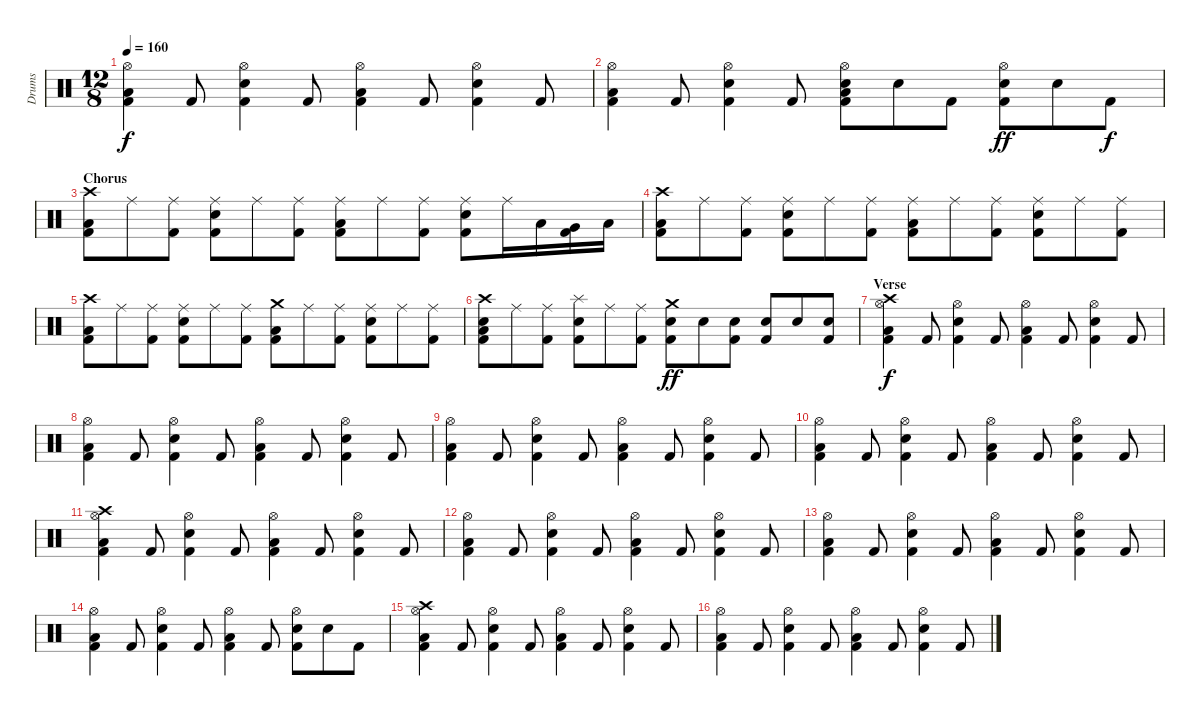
\track ("Drums" "Drums") {instrument percussion}
\staff {score}
\articulation defaults
\ts (12 8)
\tempo 160
\clef neutral
\ks c
("Hi-Hat (open)" "Low Tom (hit)" "Kick (hit) 2").4{dy f} "Kick (hit) 2".8 ("Hi-Hat (open)" "Electric Snare (hit)" "Kick (hit) 2").4 "Kick (hit) 2".8 ("Hi-Hat (open)" "Low Tom (hit)" "Kick (hit) 2").4 "Kick (hit) 2".8 ("Hi-Hat (open)" "Electric Snare (hit)" "Kick (hit) 2").4 "Kick (hit) 2".8 |
("Hi-Hat (open)" "Low Tom (hit)" "Kick (hit) 2").4 "Kick (hit) 2".8 ("Hi-Hat (open)" "Electric Snare (hit)" "Kick (hit) 2").4 "Kick (hit) 2".8 ("Hi-Hat (open)" "Electric Snare (hit)" "Low Tom (hit)" "Kick (hit) 2").8 "Electric Snare (hit)".8 "Kick (hit) 2".8 ("Hi-Hat (open)" "Electric Snare (hit)" "Kick (hit) 2").8{dy ff} "Electric Snare (hit)".8 "Kick (hit) 2".8{dy f} |
\section ("" "Chorus")
("Crash high (hit)" "Low Tom (hit)" "Kick (hit) 2").8 "Ride (middle)".8 ("Ride (middle)" "Kick (hit) 2").8 ("Ride (middle)" "Electric Snare (hit)" "Kick (hit) 2").8 "Ride (middle)".8 ("Ride (middle)" "Kick (hit) 2").8 ("Ride (middle)" "Low Tom (hit)" "Kick (hit) 2").8 "Ride (middle)".8 ("Ride (middle)" "Kick (hit) 2").8 ("Ride (middle)" "Electric Snare (hit)" "Kick (hit) 2").8 "Ride (middle)".16 "Low Floor Tom (hit)".16 ("Very Low Tom (hit)" "Kick (hit) 2").16 "Low Tom (hit)".16 |
("Crash high (hit)" "Low Tom (hit)" "Kick (hit) 2").8 "Ride (middle)".8 ("Ride (middle)" "Kick (hit) 2").8 ("Ride (middle)" "Electric Snare (hit)" "Kick (hit) 2").8 "Ride (middle)".8 ("Ride (middle)" "Kick (hit) 2").8 ("Ride (middle)" "Low Tom (hit)" "Kick (hit) 2").8 "Ride (middle)".8 ("Ride (middle)" "Kick (hit) 2").8 ("Ride (middle)" "Electric Snare (hit)" "Kick (hit) 2").8 "Ride (middle)".8 ("Ride (middle)" "Kick (hit) 2").8 |
("Crash high (hit)" "Low Tom (hit)" "Kick (hit) 2").8 "Ride (middle)".8 ("Ride (middle)" "Kick (hit) 2").8 ("Ride (middle)" "Electric Snare (hit)" "Kick (hit) 2").8 "Ride (middle)".8 ("Ride (middle)" "Kick (hit) 2").8 ("Crash medium (hit)" "Low Tom (hit)" "Kick (hit) 2").8 "Ride (middle)".8 ("Ride (middle)" "Kick (hit) 2").8 ("Ride (middle)" "Electric Snare (hit)" "Kick (hit) 2").8 "Ride (middle)".8 ("Ride (middle)" "Kick (hit) 2").8 |
("Crash high (hit)" "Electric Snare (hit)" "Low Tom (hit)" "Kick (hit) 2").8 "Ride (middle)".8 ("Ride (middle)" "Kick (hit) 2").8 ("Splash (hit)" "Electric Snare (hit)" "Kick (hit) 2").8 "Ride (middle)".8 ("Ride (middle)" "Kick (hit) 2").8 ("Crash medium (hit)" "Electric Snare (hit)" "Kick (hit) 2").8{dy ff} "Electric Snare (hit)".8 ("Electric Snare (hit)" "Kick (hit) 2").8 ("Electric Snare (hit)" "Kick (hit) 2").8 "Electric Snare (hit)".8 ("Electric Snare (hit)" "Kick (hit) 2").8 |
\section ("" "Verse")
("Crash high (hit)" "Hi-Hat (open)" "Low Tom (hit)" "Kick (hit) 2").4{dy f} "Kick (hit) 2".8 ("Hi-Hat (open)" "Electric Snare (hit)" "Kick (hit) 2").4 "Kick (hit) 2".8 ("Hi-Hat (open)" "Low Tom (hit)" "Kick (hit) 2").4 "Kick (hit) 2".8 ("Hi-Hat (open)" "Electric Snare (hit)" "Kick (hit) 2").4 "Kick (hit) 2".8 |
("Hi-Hat (open)" "Low Tom (hit)" "Kick (hit) 2").4 "Kick (hit) 2".8 ("Hi-Hat (open)" "Electric Snare (hit)" "Kick (hit) 2").4 "Kick (hit) 2".8 ("Hi-Hat (open)" "Low Tom (hit)" "Kick (hit) 2").4 "Kick (hit) 2".8 ("Hi-Hat (open)" "Electric Snare (hit)" "Kick (hit) 2").4 "Kick (hit) 2".8 |
("Hi-Hat (open)" "Low Tom (hit)" "Kick (hit) 2").4 "Kick (hit) 2".8 ("Hi-Hat (open)" "Electric Snare (hit)" "Kick (hit) 2").4 "Kick (hit) 2".8 ("Hi-Hat (open)" "Low Tom (hit)" "Kick (hit) 2").4 "Kick (hit) 2".8 ("Hi-Hat (open)" "Electric Snare (hit)" "Kick (hit) 2").4 "Kick (hit) 2".8 |
("Hi-Hat (open)" "Low Tom (hit)" "Kick (hit) 2").4 "Kick (hit) 2".8 ("Hi-Hat (open)" "Electric Snare (hit)" "Kick (hit) 2").4 "Kick (hit) 2".8 ("Hi-Hat (open)" "Low Tom (hit)" "Kick (hit) 2").4 "Kick (hit) 2".8 ("Hi-Hat (open)" "Electric Snare (hit)" "Kick (hit) 2").4 "Kick (hit) 2".8 |
("Crash high (hit)" "Hi-Hat (open)" "Low Tom (hit)" "Kick (hit) 2").4 "Kick (hit) 2".8 ("Hi-Hat (open)" "Electric Snare (hit)" "Kick (hit) 2").4 "Kick (hit) 2".8 ("Hi-Hat (open)" "Low Tom (hit)" "Kick (hit) 2").4 "Kick (hit) 2".8 ("Hi-Hat (open)" "Electric Snare (hit)" "Kick (hit) 2").4 "Kick (hit) 2".8 |
("Hi-Hat (open)" "Low Tom (hit)" "Kick (hit) 2").4 "Kick (hit) 2".8 ("Hi-Hat (open)" "Electric Snare (hit)" "Kick (hit) 2").4 "Kick (hit) 2".8 ("Hi-Hat (open)" "Low Tom (hit)" "Kick (hit) 2").4 "Kick (hit) 2".8 ("Hi-Hat (open)" "Electric Snare (hit)" "Kick (hit) 2").4 "Kick (hit) 2".8 |
("Hi-Hat (open)" "Low Tom (hit)" "Kick (hit) 2").4 "Kick (hit) 2".8 ("Hi-Hat (open)" "Electric Snare (hit)" "Kick (hit) 2").4 "Kick (hit) 2".8 ("Hi-Hat (open)" "Low Tom (hit)" "Kick (hit) 2").4 "Kick (hit) 2".8 ("Hi-Hat (open)" "Electric Snare (hit)" "Kick (hit) 2").4 "Kick (hit) 2".8 |
("Hi-Hat (open)" "Low Tom (hit)" "Kick (hit) 2").4 "Kick (hit) 2".8 ("Hi-Hat (open)" "Electric Snare (hit)" "Kick (hit) 2").4 "Kick (hit) 2".8 ("Hi-Hat (open)" "Low Tom (hit)" "Kick (hit) 2").4 "Kick (hit) 2".8 ("Hi-Hat (open)" "Electric Snare (hit)" "Kick (hit) 2").8 "Electric Snare (hit)".8 "Kick (hit) 2".8 |
("Crash high (hit)" "Hi-Hat (open)" "Low Tom (hit)" "Kick (hit) 2").4 "Kick (hit) 2".8 ("Hi-Hat (open)" "Electric Snare (hit)" "Kick (hit) 2").4 "Kick (hit) 2".8 ("Hi-Hat (open)" "Low Tom (hit)" "Kick (hit) 2").4 "Kick (hit) 2".8 ("Hi-Hat (open)" "Electric Snare (hit)" "Kick (hit) 2").4 "Kick (hit) 2".8 |
("Hi-Hat (open)" "Low Tom (hit)" "Kick (hit) 2").4 "Kick (hit) 2".8 ("Hi-Hat (open)" "Electric Snare (hit)" "Kick (hit) 2").4 "Kick (hit) 2".8 ("Hi-Hat (open)" "Low Tom (hit)" "Kick (hit) 2").4 "Kick (hit) 2".8 ("Hi-Hat (open)" "Electric Snare (hit)" "Kick (hit) 2").4 "Kick (hit) 2".8
